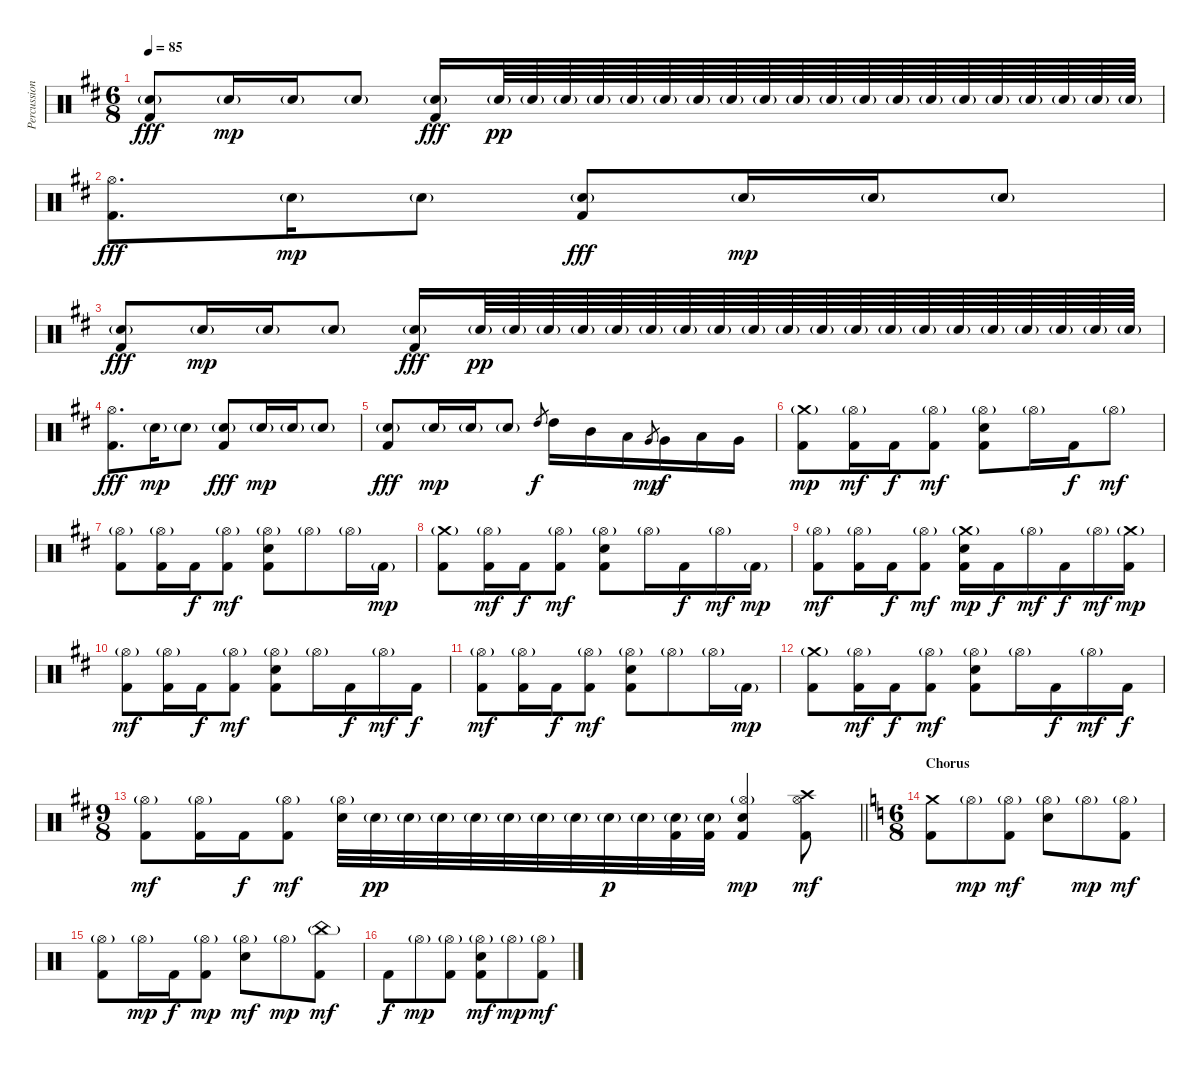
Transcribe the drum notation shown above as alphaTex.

\track ("Percussion (Daniele Carbonera)" "Percussion") {instrument percussion}
\staff {score}
\articulation defaults
\ts (6 8)
\tempo 85
\clef neutral
\ks d
("Snare (hit) 2"{g} "Kick (hit) 2").8{dy fff} "Snare (hit) 2"{g}.16{dy mp} "Snare (hit) 2"{g}.16 "Snare (hit) 2"{g}.8 ("Snare (hit) 2"{g} "Kick (hit) 2").16{dy fff} "Snare (hit) 2"{g}.64{dy pp} "Snare (hit) 2"{g}.64 "Snare (hit) 2"{g}.64 "Snare (hit) 2"{g}.64 "Snare (hit) 2"{g}.64 "Snare (hit) 2"{g}.64 "Snare (hit) 2"{g}.64 "Snare (hit) 2"{g}.64 "Snare (hit) 2"{g}.64 "Snare (hit) 2"{g}.64 "Snare (hit) 2"{g}.64 "Snare (hit) 2"{g}.64 "Snare (hit) 2"{g}.64 "Snare (hit) 2"{g}.64 "Snare (hit) 2"{g}.64 "Snare (hit) 2"{g}.64 "Snare (hit) 2"{g}.64 "Snare (hit) 2"{g}.64 "Snare (hit) 2"{g}.64 "Snare (hit) 2"{g}.64 |
("Hi-Hat (open)" "Kick (hit) 2").8{d dy fff} "Snare (hit) 2"{g}.16{dy mp} "Snare (hit) 2"{g}.8 ("Snare (hit) 2"{g} "Kick (hit) 2").8{dy fff} "Snare (hit) 2"{g}.16{dy mp} "Snare (hit) 2"{g}.16 "Snare (hit) 2"{g}.8 |
("Snare (hit) 2"{g} "Kick (hit) 2").8{dy fff} "Snare (hit) 2"{g}.16{dy mp} "Snare (hit) 2"{g}.16 "Snare (hit) 2"{g}.8 ("Snare (hit) 2"{g} "Kick (hit) 2").16{dy fff} "Snare (hit) 2"{g}.64{dy pp} "Snare (hit) 2"{g}.64 "Snare (hit) 2"{g}.64 "Snare (hit) 2"{g}.64 "Snare (hit) 2"{g}.64 "Snare (hit) 2"{g}.64 "Snare (hit) 2"{g}.64 "Snare (hit) 2"{g}.64 "Snare (hit) 2"{g}.64 "Snare (hit) 2"{g}.64 "Snare (hit) 2"{g}.64 "Snare (hit) 2"{g}.64 "Snare (hit) 2"{g}.64 "Snare (hit) 2"{g}.64 "Snare (hit) 2"{g}.64 "Snare (hit) 2"{g}.64 "Snare (hit) 2"{g}.64 "Snare (hit) 2"{g}.64 "Snare (hit) 2"{g}.64 "Snare (hit) 2"{g}.64 |
("Hi-Hat (open)" "Kick (hit) 2").8{d dy fff} "Snare (hit) 2"{g}.16{dy mp} "Snare (hit) 2"{g}.8 ("Snare (hit) 2"{g} "Kick (hit) 2").8{dy fff} "Snare (hit) 2"{g}.16{dy mp} "Snare (hit) 2"{g}.16 "Snare (hit) 2"{g}.8 |
("Snare (hit) 2"{g} "Kick (hit) 2").8{dy fff} "Snare (hit) 2"{g}.16{dy mp} "Snare (hit) 2"{g}.16 "Snare (hit) 2"{g}.8 "High Tom (hit)".8{gr dy f} "High Tom (hit)".16 "Mid Tom (hit)".16 "Low Tom (hit)".16 "Very Low Tom (hit)".8{gr dy mp} "Very Low Tom (hit)".16{dy f} "Low Tom (hit)".16 "Very Low Tom (hit)".16 |
("Crash medium (hit)"{g} "Kick (hit) 2").8{dy mp} ("Hi-Hat (open)"{g} "Kick (hit) 2").16{dy mf} "Kick (hit) 2".16{dy f} ("Hi-Hat (open)"{g} "Kick (hit) 2").8{dy mf} ("Hi-Hat (open)"{g} "Electric Snare (hit)" "Kick (hit) 2").8 "Hi-Hat (open)"{g}.16 "Kick (hit) 2".16{dy f} "Hi-Hat (open)"{g}.8{dy mf} |
("Hi-Hat (open)"{g} "Kick (hit) 2").8 ("Hi-Hat (open)"{g} "Kick (hit) 2").16 "Kick (hit) 2".16{dy f} ("Hi-Hat (open)"{g} "Kick (hit) 2").8{dy mf} ("Hi-Hat (open)"{g} "Electric Snare (hit)" "Kick (hit) 2").8 "Hi-Hat (open)"{g}.8 "Hi-Hat (open)"{g}.16 "Kick (hit) 2"{g}.16{dy mp} |
("Crash medium (hit)"{g} "Kick (hit) 2").8 ("Hi-Hat (open)"{g} "Kick (hit) 2").16{dy mf} "Kick (hit) 2".16{dy f} ("Hi-Hat (open)"{g} "Kick (hit) 2").8{dy mf} ("Hi-Hat (open)"{g} "Electric Snare (hit)" "Kick (hit) 2").8 "Hi-Hat (open)"{g}.16 "Kick (hit) 2".16{dy f} "Hi-Hat (open)"{g}.16{dy mf} "Kick (hit) 2"{g}.16{dy mp} |
("Hi-Hat (open)"{g} "Kick (hit) 2").8{dy mf} ("Hi-Hat (open)"{g} "Kick (hit) 2").16 "Kick (hit) 2".16{dy f} ("Hi-Hat (open)"{g} "Kick (hit) 2").8{dy mf} ("Crash medium (hit)"{g} "Electric Snare (hit)" "Kick (hit) 2").16{dy mp} "Kick (hit) 2".16{dy f} "Hi-Hat (open)"{g}.16{dy mf} "Kick (hit) 2".16{dy f} "Hi-Hat (open)"{g}.16{dy mf} ("Crash medium (hit)"{g} "Kick (hit) 2").16{dy mp} |
("Hi-Hat (open)"{g} "Kick (hit) 2").8{dy mf} ("Hi-Hat (open)"{g} "Kick (hit) 2").16 "Kick (hit) 2".16{dy f} ("Hi-Hat (open)"{g} "Kick (hit) 2").8{dy mf} ("Hi-Hat (open)"{g} "Electric Snare (hit)" "Kick (hit) 2").8 "Hi-Hat (open)"{g}.16 "Kick (hit) 2".16{dy f} "Hi-Hat (open)"{g}.16{dy mf} "Kick (hit) 2".16{dy f} |
("Hi-Hat (open)"{g} "Kick (hit) 2").8{dy mf} ("Hi-Hat (open)"{g} "Kick (hit) 2").16 "Kick (hit) 2".16{dy f} ("Hi-Hat (open)"{g} "Kick (hit) 2").8{dy mf} ("Hi-Hat (open)"{g} "Electric Snare (hit)" "Kick (hit) 2").8 "Hi-Hat (open)"{g}.8 "Hi-Hat (open)"{g}.16 "Kick (hit) 2"{g}.16{dy mp} |
("Crash medium (hit)"{g} "Kick (hit) 2").8 ("Hi-Hat (open)"{g} "Kick (hit) 2").16{dy mf} "Kick (hit) 2".16{dy f} ("Hi-Hat (open)"{g} "Kick (hit) 2").8{dy mf} ("Hi-Hat (open)"{g} "Electric Snare (hit)" "Kick (hit) 2").8 "Hi-Hat (open)"{g}.16 "Kick (hit) 2".16{dy f} "Hi-Hat (open)"{g}.16{dy mf} "Kick (hit) 2".16{dy f} |
\ts (9 8)
\barLineRight lightlight
\ks bminor
("Hi-Hat (open)"{g} "Kick (hit) 2").8{dy mf} ("Hi-Hat (open)"{g} "Kick (hit) 2").16 "Kick (hit) 2".16{dy f} ("Hi-Hat (open)"{g} "Kick (hit) 2").8{dy mf} ("Hi-Hat (open)"{g} "Electric Snare (hit)").32 "Snare (hit) 2"{g}.32{dy pp} "Snare (hit) 2"{g}.32 "Snare (hit) 2"{g}.32 "Snare (hit) 2"{g}.32 "Snare (hit) 2"{g}.32 "Snare (hit) 2"{g}.32 "Snare (hit) 2"{g}.32 "Snare (hit) 2"{g}.32{dy p} "Snare (hit) 2"{g}.32 ("Snare (hit) 2"{g} "Kick (hit) 2").32 ("Snare (hit) 2"{g} "Kick (hit) 2").32 ("Hi-Hat (open)"{g} "Electric Snare (hit)" "Kick (hit) 2").4{dy mp} ("Crash high (hit)" "Hi-Hat (open)" "Kick (hit) 2").8{dy mf} |
\ts (6 8)
\section ("" "Chorus")
\ks aminor
("Crash medium (hit)" "Kick (hit) 2").8 "Hi-Hat (open)"{g}.8{dy mp} ("Hi-Hat (open)"{g} "Kick (hit) 2").8{dy mf} ("Hi-Hat (open)"{g} "Electric Snare (hit)").8 "Hi-Hat (open)"{g}.8{dy mp} ("Hi-Hat (open)"{g} "Kick (hit) 2").8{dy mf} |
("Hi-Hat (open)"{g} "Kick (hit) 2").8 "Hi-Hat (open)"{g}.16{dy mp} "Kick (hit) 2".16{dy f} ("Hi-Hat (open)"{g} "Kick (hit) 2").8{dy mp} ("Hi-Hat (open)"{g} "Electric Snare (hit)").8{dy mf} "Hi-Hat (open)"{g}.8{dy mp} ("China (hit)"{g} "Kick (hit) 2").8{dy mf} |
"Kick (hit) 2".8{dy f} "Hi-Hat (open)"{g}.8{dy mp} ("Hi-Hat (open)"{g} "Kick (hit) 2").8 ("Hi-Hat (open)"{g} "Electric Snare (hit)" "Kick (hit) 2").8{dy mf} "Hi-Hat (open)"{g}.8{dy mp} ("Hi-Hat (open)"{g} "Kick (hit) 2").8{dy mf}
